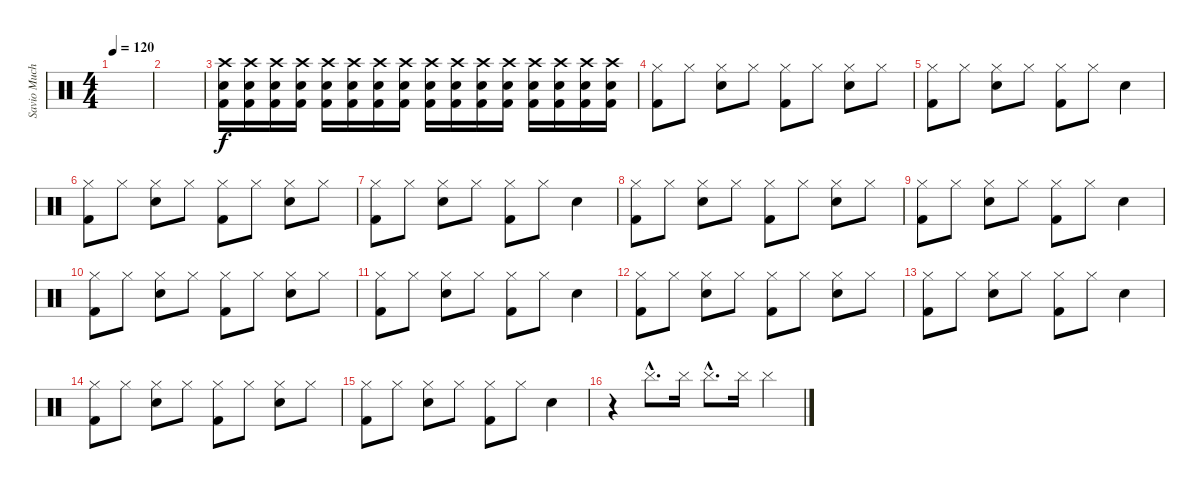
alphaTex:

\track ("Savio Muchacho (Drums)" "Savio Much") {instrument percussion}
\staff {score}
\articulation defaults
\ts (4 4)
\tempo 120
\clef neutral
\ks c
|
|
("Crash high (hit)" "Snare (hit) 2" "Kick (hit) 2").16 ("Crash high (hit)" "Snare (hit) 2" "Kick (hit) 2").16 ("Crash high (hit)" "Snare (hit) 2" "Kick (hit) 2").16 ("Crash high (hit)" "Snare (hit) 2" "Kick (hit) 2").16 ("Crash high (hit)" "Snare (hit) 2" "Kick (hit) 2").16 ("Crash high (hit)" "Snare (hit) 2" "Kick (hit) 2").16 ("Crash high (hit)" "Snare (hit) 2" "Kick (hit) 2").16 ("Crash high (hit)" "Snare (hit) 2" "Kick (hit) 2").16 ("Crash high (hit)" "Snare (hit) 2" "Kick (hit) 2").16 ("Crash high (hit)" "Snare (hit) 2" "Kick (hit) 2").16 ("Crash high (hit)" "Snare (hit) 2" "Kick (hit) 2").16 ("Crash high (hit)" "Snare (hit) 2" "Kick (hit) 2").16 ("Crash high (hit)" "Snare (hit) 2" "Kick (hit) 2").16 ("Crash high (hit)" "Snare (hit) 2" "Kick (hit) 2").16 ("Crash high (hit)" "Snare (hit) 2" "Kick (hit) 2").16 ("Crash high (hit)" "Snare (hit) 2" "Kick (hit) 2").16 |
("Hi-Hat (closed)" "Kick (hit) 2").8 "Hi-Hat (closed)".8 ("Hi-Hat (closed)" "Electric Snare (hit)").8 "Hi-Hat (closed)".8 ("Hi-Hat (closed)" "Kick (hit) 2").8 "Hi-Hat (closed)".8 ("Hi-Hat (closed)" "Electric Snare (hit)").8 "Hi-Hat (closed)".8 |
("Hi-Hat (closed)" "Kick (hit) 2").8 "Hi-Hat (closed)".8 ("Hi-Hat (closed)" "Electric Snare (hit)").8 "Hi-Hat (closed)".8 ("Hi-Hat (closed)" "Kick (hit) 2").8 "Hi-Hat (closed)".8 "Electric Snare (hit)".4 |
("Hi-Hat (closed)" "Kick (hit) 2").8 "Hi-Hat (closed)".8 ("Hi-Hat (closed)" "Electric Snare (hit)").8 "Hi-Hat (closed)".8 ("Hi-Hat (closed)" "Kick (hit) 2").8 "Hi-Hat (closed)".8 ("Hi-Hat (closed)" "Electric Snare (hit)").8 "Hi-Hat (closed)".8 |
("Hi-Hat (closed)" "Kick (hit) 2").8 "Hi-Hat (closed)".8 ("Hi-Hat (closed)" "Electric Snare (hit)").8 "Hi-Hat (closed)".8 ("Hi-Hat (closed)" "Kick (hit) 2").8 "Hi-Hat (closed)".8 "Electric Snare (hit)".4 |
("Hi-Hat (closed)" "Kick (hit) 2").8 "Hi-Hat (closed)".8 ("Hi-Hat (closed)" "Electric Snare (hit)").8 "Hi-Hat (closed)".8 ("Hi-Hat (closed)" "Kick (hit) 2").8 "Hi-Hat (closed)".8 ("Hi-Hat (closed)" "Electric Snare (hit)").8 "Hi-Hat (closed)".8 |
("Hi-Hat (closed)" "Kick (hit) 2").8 "Hi-Hat (closed)".8 ("Hi-Hat (closed)" "Electric Snare (hit)").8 "Hi-Hat (closed)".8 ("Hi-Hat (closed)" "Kick (hit) 2").8 "Hi-Hat (closed)".8 "Electric Snare (hit)".4 |
("Hi-Hat (closed)" "Kick (hit) 2").8 "Hi-Hat (closed)".8 ("Hi-Hat (closed)" "Electric Snare (hit)").8 "Hi-Hat (closed)".8 ("Hi-Hat (closed)" "Kick (hit) 2").8 "Hi-Hat (closed)".8 ("Hi-Hat (closed)" "Electric Snare (hit)").8 "Hi-Hat (closed)".8 |
("Hi-Hat (closed)" "Kick (hit) 2").8 "Hi-Hat (closed)".8 ("Hi-Hat (closed)" "Electric Snare (hit)").8 "Hi-Hat (closed)".8 ("Hi-Hat (closed)" "Kick (hit) 2").8 "Hi-Hat (closed)".8 "Electric Snare (hit)".4 |
("Hi-Hat (closed)" "Kick (hit) 2").8 "Hi-Hat (closed)".8 ("Hi-Hat (closed)" "Electric Snare (hit)").8 "Hi-Hat (closed)".8 ("Hi-Hat (closed)" "Kick (hit) 2").8 "Hi-Hat (closed)".8 ("Hi-Hat (closed)" "Electric Snare (hit)").8 "Hi-Hat (closed)".8 |
("Hi-Hat (closed)" "Kick (hit) 2").8 "Hi-Hat (closed)".8 ("Hi-Hat (closed)" "Electric Snare (hit)").8 "Hi-Hat (closed)".8 ("Hi-Hat (closed)" "Kick (hit) 2").8 "Hi-Hat (closed)".8 "Electric Snare (hit)".4 |
("Hi-Hat (closed)" "Kick (hit) 2").8 "Hi-Hat (closed)".8 ("Hi-Hat (closed)" "Electric Snare (hit)").8 "Hi-Hat (closed)".8 ("Hi-Hat (closed)" "Kick (hit) 2").8 "Hi-Hat (closed)".8 ("Hi-Hat (closed)" "Electric Snare (hit)").8 "Hi-Hat (closed)".8 |
("Hi-Hat (closed)" "Kick (hit) 2").8 "Hi-Hat (closed)".8 ("Hi-Hat (closed)" "Electric Snare (hit)").8 "Hi-Hat (closed)".8 ("Hi-Hat (closed)" "Kick (hit) 2").8 "Hi-Hat (closed)".8 "Electric Snare (hit)".4 |
r.4 "Cymbal (hit)"{hac}.8{d} "Cymbal (hit)".16 "Cymbal (hit)"{hac}.8{d} "Cymbal (hit)".16 "Cymbal (hit)".4
